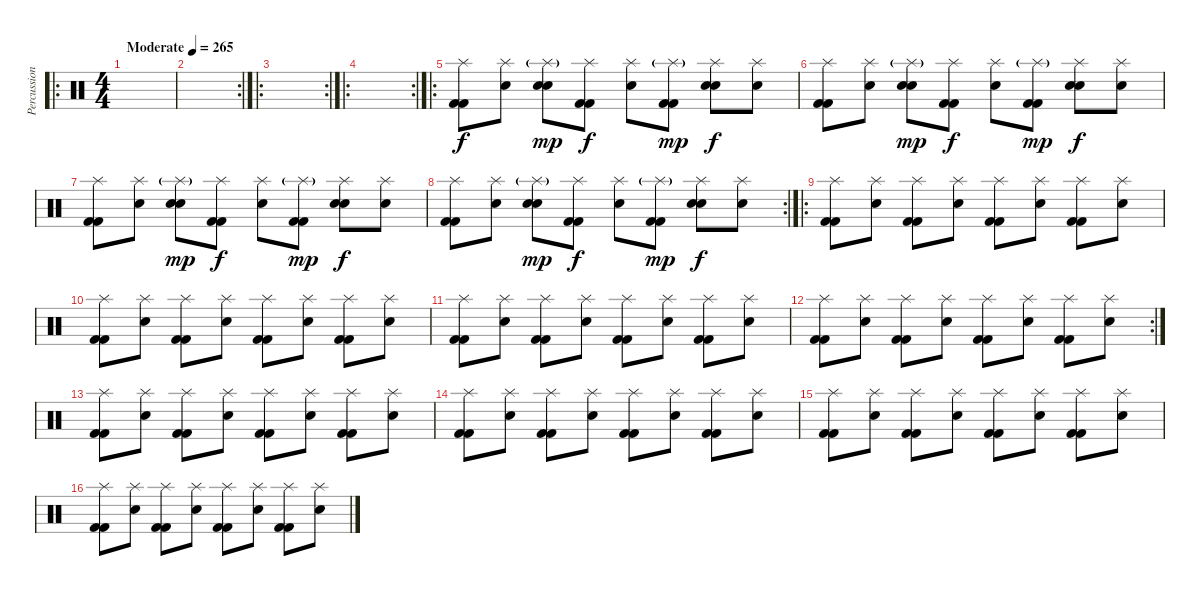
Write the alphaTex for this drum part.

\track ("Percussion" "Percussion") {instrument percussion}
\staff {score}
\articulation defaults
\ro
\ts (4 4)
\tempo (265 "Moderate")
\clef neutral
\ks c
|
\rc 2
|
\ro
\rc 2
|
\ro
\rc 2
|
\ro
("Splash (hit)" "Kick (hit) 2" "Kick (hit) 2").8 ("Splash (hit)" "Snare (hit)").8 ("Splash (hit)"{g} "Electric Snare (hit)" "Electric Snare (hit)").8{dy mp} ("Splash (hit)" "Kick (hit) 2" "Kick (hit) 2").8{dy f} ("Splash (hit)" "Snare (hit)").8 ("Splash (hit)"{g} "Kick (hit) 2" "Kick (hit) 2").8{dy mp} ("Splash (hit)" "Electric Snare (hit)" "Electric Snare (hit)").8{dy f} ("Splash (hit)" "Snare (hit)").8 |
("Splash (hit)" "Kick (hit) 2" "Kick (hit) 2").8 ("Splash (hit)" "Snare (hit)").8 ("Splash (hit)"{g} "Electric Snare (hit)" "Electric Snare (hit)").8{dy mp} ("Splash (hit)" "Kick (hit) 2" "Kick (hit) 2").8{dy f} ("Splash (hit)" "Snare (hit)").8 ("Splash (hit)"{g} "Kick (hit) 2" "Kick (hit) 2").8{dy mp} ("Splash (hit)" "Electric Snare (hit)" "Electric Snare (hit)").8{dy f} ("Splash (hit)" "Snare (hit)").8 |
("Splash (hit)" "Kick (hit) 2" "Kick (hit) 2").8 ("Splash (hit)" "Snare (hit)").8 ("Splash (hit)"{g} "Electric Snare (hit)" "Electric Snare (hit)").8{dy mp} ("Splash (hit)" "Kick (hit) 2" "Kick (hit) 2").8{dy f} ("Splash (hit)" "Snare (hit)").8 ("Splash (hit)"{g} "Kick (hit) 2" "Kick (hit) 2").8{dy mp} ("Splash (hit)" "Electric Snare (hit)" "Electric Snare (hit)").8{dy f} ("Splash (hit)" "Snare (hit)").8 |
\rc 2
("Splash (hit)" "Kick (hit) 2" "Kick (hit) 2").8 ("Splash (hit)" "Snare (hit)").8 ("Splash (hit)"{g} "Electric Snare (hit)" "Electric Snare (hit)").8{dy mp} ("Splash (hit)" "Kick (hit) 2" "Kick (hit) 2").8{dy f} ("Splash (hit)" "Snare (hit)").8 ("Splash (hit)"{g} "Kick (hit) 2" "Kick (hit) 2").8{dy mp} ("Splash (hit)" "Electric Snare (hit)" "Electric Snare (hit)").8{dy f} ("Splash (hit)" "Snare (hit)").8 |
\ro
("Splash (hit)" "Kick (hit) 2" "Kick (hit) 2").8 ("Splash (hit)" "Snare (hit)").8 ("Splash (hit)" "Kick (hit) 2" "Kick (hit) 2").8 ("Splash (hit)" "Snare (hit)").8 ("Splash (hit)" "Kick (hit) 2" "Kick (hit) 2").8 ("Splash (hit)" "Snare (hit)").8 ("Splash (hit)" "Kick (hit) 2" "Kick (hit) 2").8 ("Splash (hit)" "Snare (hit)").8 |
("Splash (hit)" "Kick (hit) 2" "Kick (hit) 2").8 ("Splash (hit)" "Snare (hit)").8 ("Splash (hit)" "Kick (hit) 2" "Kick (hit) 2").8 ("Splash (hit)" "Snare (hit)").8 ("Splash (hit)" "Kick (hit) 2" "Kick (hit) 2").8 ("Splash (hit)" "Snare (hit)").8 ("Splash (hit)" "Kick (hit) 2" "Kick (hit) 2").8 ("Splash (hit)" "Snare (hit)").8 |
("Splash (hit)" "Kick (hit) 2" "Kick (hit) 2").8 ("Splash (hit)" "Snare (hit)").8 ("Splash (hit)" "Kick (hit) 2" "Kick (hit) 2").8 ("Splash (hit)" "Snare (hit)").8 ("Splash (hit)" "Kick (hit) 2" "Kick (hit) 2").8 ("Splash (hit)" "Snare (hit)").8 ("Splash (hit)" "Kick (hit) 2" "Kick (hit) 2").8 ("Splash (hit)" "Snare (hit)").8 |
\rc 2
("Splash (hit)" "Kick (hit) 2" "Kick (hit) 2").8 ("Splash (hit)" "Snare (hit)").8 ("Splash (hit)" "Kick (hit) 2" "Kick (hit) 2").8 ("Splash (hit)" "Snare (hit)").8 ("Splash (hit)" "Kick (hit) 2" "Kick (hit) 2").8 ("Splash (hit)" "Snare (hit)").8 ("Splash (hit)" "Kick (hit) 2" "Kick (hit) 2").8 ("Splash (hit)" "Snare (hit)").8 |
("Splash (hit)" "Kick (hit) 2" "Kick (hit) 2").8 ("Splash (hit)" "Snare (hit)").8 ("Splash (hit)" "Kick (hit) 2" "Kick (hit) 2").8 ("Splash (hit)" "Snare (hit)").8 ("Splash (hit)" "Kick (hit) 2" "Kick (hit) 2").8 ("Splash (hit)" "Snare (hit)").8 ("Splash (hit)" "Kick (hit) 2" "Kick (hit) 2").8 ("Splash (hit)" "Snare (hit)").8 |
("Splash (hit)" "Kick (hit) 2" "Kick (hit) 2").8 ("Splash (hit)" "Snare (hit)").8 ("Splash (hit)" "Kick (hit) 2" "Kick (hit) 2").8 ("Splash (hit)" "Snare (hit)").8 ("Splash (hit)" "Kick (hit) 2" "Kick (hit) 2").8 ("Splash (hit)" "Snare (hit)").8 ("Splash (hit)" "Kick (hit) 2" "Kick (hit) 2").8 ("Splash (hit)" "Snare (hit)").8 |
("Splash (hit)" "Kick (hit) 2" "Kick (hit) 2").8 ("Splash (hit)" "Snare (hit)").8 ("Splash (hit)" "Kick (hit) 2" "Kick (hit) 2").8 ("Splash (hit)" "Snare (hit)").8 ("Splash (hit)" "Kick (hit) 2" "Kick (hit) 2").8 ("Splash (hit)" "Snare (hit)").8 ("Splash (hit)" "Kick (hit) 2" "Kick (hit) 2").8 ("Splash (hit)" "Snare (hit)").8 |
("Splash (hit)" "Kick (hit) 2" "Kick (hit) 2").8 ("Splash (hit)" "Snare (hit)").8 ("Splash (hit)" "Kick (hit) 2" "Kick (hit) 2").8 ("Splash (hit)" "Snare (hit)").8 ("Splash (hit)" "Kick (hit) 2" "Kick (hit) 2").8 ("Splash (hit)" "Snare (hit)").8 ("Splash (hit)" "Kick (hit) 2" "Kick (hit) 2").8 ("Splash (hit)" "Snare (hit)").8
